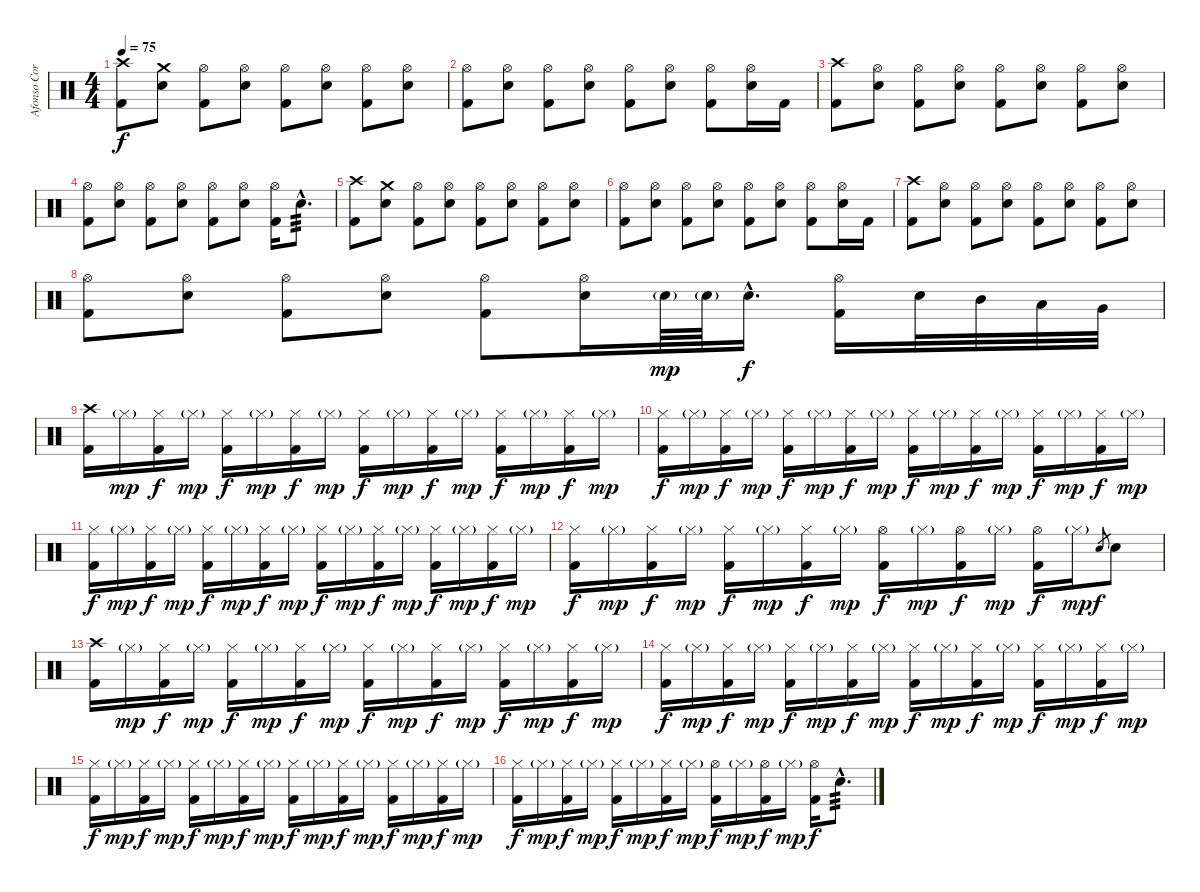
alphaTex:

\track ("Afonso Corte-Real" "Afonso Cor") {instrument percussion}
\staff {score}
\articulation defaults
\ts (4 4)
\tempo 75
\clef neutral
\ks c
("Crash high (hit)" "Kick (hit) 2").8{dy f} ("Crash medium (hit)" "Electric Snare (hit)").8 ("Hi-Hat (open)" "Kick (hit) 2").8 ("Hi-Hat (open)" "Electric Snare (hit)").8 ("Hi-Hat (open)" "Kick (hit) 2").8 ("Hi-Hat (open)" "Electric Snare (hit)").8 ("Hi-Hat (open)" "Kick (hit) 2").8 ("Hi-Hat (open)" "Electric Snare (hit)").8 |
("Hi-Hat (open)" "Kick (hit) 2").8 ("Hi-Hat (open)" "Electric Snare (hit)").8 ("Hi-Hat (open)" "Kick (hit) 2").8 ("Hi-Hat (open)" "Electric Snare (hit)").8 ("Hi-Hat (open)" "Kick (hit) 2").8 ("Hi-Hat (open)" "Electric Snare (hit)").8 ("Hi-Hat (open)" "Kick (hit) 2").8 ("Hi-Hat (open)" "Electric Snare (hit)").16 "Kick (hit) 2".16 |
("Crash high (hit)" "Kick (hit) 2").8 ("Hi-Hat (open)" "Electric Snare (hit)").8 ("Hi-Hat (open)" "Kick (hit) 2").8 ("Hi-Hat (open)" "Electric Snare (hit)").8 ("Hi-Hat (open)" "Kick (hit) 2").8 ("Hi-Hat (open)" "Electric Snare (hit)").8 ("Hi-Hat (open)" "Kick (hit) 2").8 ("Hi-Hat (open)" "Electric Snare (hit)").8 |
("Hi-Hat (open)" "Kick (hit) 2").8 ("Hi-Hat (open)" "Electric Snare (hit)").8 ("Hi-Hat (open)" "Kick (hit) 2").8 ("Hi-Hat (open)" "Electric Snare (hit)").8 ("Hi-Hat (open)" "Kick (hit) 2").8 ("Hi-Hat (open)" "Electric Snare (hit)").8 ("Hi-Hat (open)" "Kick (hit) 2").16 "Electric Snare (hit)"{hac}.8{d tp 3} |
("Crash high (hit)" "Kick (hit) 2").8 ("Crash medium (hit)" "Electric Snare (hit)").8 ("Hi-Hat (open)" "Kick (hit) 2").8 ("Hi-Hat (open)" "Electric Snare (hit)").8 ("Hi-Hat (open)" "Kick (hit) 2").8 ("Hi-Hat (open)" "Electric Snare (hit)").8 ("Hi-Hat (open)" "Kick (hit) 2").8 ("Hi-Hat (open)" "Electric Snare (hit)").8 |
("Hi-Hat (open)" "Kick (hit) 2").8 ("Hi-Hat (open)" "Electric Snare (hit)").8 ("Hi-Hat (open)" "Kick (hit) 2").8 ("Hi-Hat (open)" "Electric Snare (hit)").8 ("Hi-Hat (open)" "Kick (hit) 2").8 ("Hi-Hat (open)" "Electric Snare (hit)").8 ("Hi-Hat (open)" "Kick (hit) 2").8 ("Hi-Hat (open)" "Electric Snare (hit)").16 "Kick (hit) 2".16 |
("Crash high (hit)" "Kick (hit) 2").8 ("Hi-Hat (open)" "Electric Snare (hit)").8 ("Hi-Hat (open)" "Kick (hit) 2").8 ("Hi-Hat (open)" "Electric Snare (hit)").8 ("Hi-Hat (open)" "Kick (hit) 2").8 ("Hi-Hat (open)" "Electric Snare (hit)").8 ("Hi-Hat (open)" "Kick (hit) 2").8 ("Hi-Hat (open)" "Electric Snare (hit)").8 |
("Hi-Hat (open)" "Kick (hit) 2").8 ("Hi-Hat (open)" "Electric Snare (hit)").8 ("Hi-Hat (open)" "Kick (hit) 2").8 ("Hi-Hat (open)" "Electric Snare (hit)").8 ("Hi-Hat (open)" "Kick (hit) 2").8 ("Hi-Hat (open)" "Electric Snare (hit)").16 "Electric Snare (hit)"{g}.64{dy mp} "Electric Snare (hit)"{g}.64 "Electric Snare (hit)"{hac}.16{d dy f} ("Hi-Hat (open)" "Kick (hit) 2").16 "Electric Snare (hit)".32 "Mid Tom (hit)".32 "Low Tom (hit)".32 "Very Low Tom (hit)".32 |
("Crash high (hit)" "Kick (hit) 2").16 "Hi-Hat (closed)"{g}.16{dy mp} ("Hi-Hat (closed)" "Kick (hit) 2").16{dy f} "Hi-Hat (closed)"{g}.16{dy mp} ("Hi-Hat (closed)" "Kick (hit) 2").16{dy f} "Hi-Hat (closed)"{g}.16{dy mp} ("Hi-Hat (closed)" "Kick (hit) 2").16{dy f} "Hi-Hat (closed)"{g}.16{dy mp} ("Hi-Hat (closed)" "Kick (hit) 2").16{dy f} "Hi-Hat (closed)"{g}.16{dy mp} ("Hi-Hat (closed)" "Kick (hit) 2").16{dy f} "Hi-Hat (closed)"{g}.16{dy mp} ("Hi-Hat (closed)" "Kick (hit) 2").16{dy f} "Hi-Hat (closed)"{g}.16{dy mp} ("Hi-Hat (closed)" "Kick (hit) 2").16{dy f} "Hi-Hat (closed)"{g}.16{dy mp} |
("Hi-Hat (closed)" "Kick (hit) 2").16{dy f} "Hi-Hat (closed)"{g}.16{dy mp} ("Hi-Hat (closed)" "Kick (hit) 2").16{dy f} "Hi-Hat (closed)"{g}.16{dy mp} ("Hi-Hat (closed)" "Kick (hit) 2").16{dy f} "Hi-Hat (closed)"{g}.16{dy mp} ("Hi-Hat (closed)" "Kick (hit) 2").16{dy f} "Hi-Hat (closed)"{g}.16{dy mp} ("Hi-Hat (closed)" "Kick (hit) 2").16{dy f} "Hi-Hat (closed)"{g}.16{dy mp} ("Hi-Hat (closed)" "Kick (hit) 2").16{dy f} "Hi-Hat (closed)"{g}.16{dy mp} ("Hi-Hat (closed)" "Kick (hit) 2").16{dy f} "Hi-Hat (closed)"{g}.16{dy mp} ("Hi-Hat (closed)" "Kick (hit) 2").16{dy f} "Hi-Hat (closed)"{g}.16{dy mp} |
("Hi-Hat (closed)" "Kick (hit) 2").16{dy f} "Hi-Hat (closed)"{g}.16{dy mp} ("Hi-Hat (closed)" "Kick (hit) 2").16{dy f} "Hi-Hat (closed)"{g}.16{dy mp} ("Hi-Hat (closed)" "Kick (hit) 2").16{dy f} "Hi-Hat (closed)"{g}.16{dy mp} ("Hi-Hat (closed)" "Kick (hit) 2").16{dy f} "Hi-Hat (closed)"{g}.16{dy mp} ("Hi-Hat (closed)" "Kick (hit) 2").16{dy f} "Hi-Hat (closed)"{g}.16{dy mp} ("Hi-Hat (closed)" "Kick (hit) 2").16{dy f} "Hi-Hat (closed)"{g}.16{dy mp} ("Hi-Hat (closed)" "Kick (hit) 2").16{dy f} "Hi-Hat (closed)"{g}.16{dy mp} ("Hi-Hat (closed)" "Kick (hit) 2").16{dy f} "Hi-Hat (closed)"{g}.16{dy mp} |
("Hi-Hat (closed)" "Kick (hit) 2").16{dy f} "Hi-Hat (closed)"{g}.16{dy mp} ("Hi-Hat (closed)" "Kick (hit) 2").16{dy f} "Hi-Hat (closed)"{g}.16{dy mp} ("Hi-Hat (closed)" "Kick (hit) 2").16{dy f} "Hi-Hat (closed)"{g}.16{dy mp} ("Hi-Hat (closed)" "Kick (hit) 2").16{dy f} "Hi-Hat (closed)"{g}.16{dy mp} ("Hi-Hat (open)" "Kick (hit) 2").16{dy f} "Hi-Hat (closed)"{g}.16{dy mp} ("Hi-Hat (open)" "Kick (hit) 2").16{dy f} "Hi-Hat (closed)"{g}.16{dy mp} ("Hi-Hat (open)" "Kick (hit) 2").16{dy f} "Hi-Hat (closed)"{g}.16{dy mp} "Electric Snare (hit)".8{gr dy f} "Electric Snare (hit)".8 |
("Crash high (hit)" "Kick (hit) 2").16 "Hi-Hat (closed)"{g}.16{dy mp} ("Hi-Hat (closed)" "Kick (hit) 2").16{dy f} "Hi-Hat (closed)"{g}.16{dy mp} ("Hi-Hat (closed)" "Kick (hit) 2").16{dy f} "Hi-Hat (closed)"{g}.16{dy mp} ("Hi-Hat (closed)" "Kick (hit) 2").16{dy f} "Hi-Hat (closed)"{g}.16{dy mp} ("Hi-Hat (closed)" "Kick (hit) 2").16{dy f} "Hi-Hat (closed)"{g}.16{dy mp} ("Hi-Hat (closed)" "Kick (hit) 2").16{dy f} "Hi-Hat (closed)"{g}.16{dy mp} ("Hi-Hat (closed)" "Kick (hit) 2").16{dy f} "Hi-Hat (closed)"{g}.16{dy mp} ("Hi-Hat (closed)" "Kick (hit) 2").16{dy f} "Hi-Hat (closed)"{g}.16{dy mp} |
("Hi-Hat (closed)" "Kick (hit) 2").16{dy f} "Hi-Hat (closed)"{g}.16{dy mp} ("Hi-Hat (closed)" "Kick (hit) 2").16{dy f} "Hi-Hat (closed)"{g}.16{dy mp} ("Hi-Hat (closed)" "Kick (hit) 2").16{dy f} "Hi-Hat (closed)"{g}.16{dy mp} ("Hi-Hat (closed)" "Kick (hit) 2").16{dy f} "Hi-Hat (closed)"{g}.16{dy mp} ("Hi-Hat (closed)" "Kick (hit) 2").16{dy f} "Hi-Hat (closed)"{g}.16{dy mp} ("Hi-Hat (closed)" "Kick (hit) 2").16{dy f} "Hi-Hat (closed)"{g}.16{dy mp} ("Hi-Hat (closed)" "Kick (hit) 2").16{dy f} "Hi-Hat (closed)"{g}.16{dy mp} ("Hi-Hat (closed)" "Kick (hit) 2").16{dy f} "Hi-Hat (closed)"{g}.16{dy mp} |
("Hi-Hat (closed)" "Kick (hit) 2").16{dy f} "Hi-Hat (closed)"{g}.16{dy mp} ("Hi-Hat (closed)" "Kick (hit) 2").16{dy f} "Hi-Hat (closed)"{g}.16{dy mp} ("Hi-Hat (closed)" "Kick (hit) 2").16{dy f} "Hi-Hat (closed)"{g}.16{dy mp} ("Hi-Hat (closed)" "Kick (hit) 2").16{dy f} "Hi-Hat (closed)"{g}.16{dy mp} ("Hi-Hat (closed)" "Kick (hit) 2").16{dy f} "Hi-Hat (closed)"{g}.16{dy mp} ("Hi-Hat (closed)" "Kick (hit) 2").16{dy f} "Hi-Hat (closed)"{g}.16{dy mp} ("Hi-Hat (closed)" "Kick (hit) 2").16{dy f} "Hi-Hat (closed)"{g}.16{dy mp} ("Hi-Hat (closed)" "Kick (hit) 2").16{dy f} "Hi-Hat (closed)"{g}.16{dy mp} |
("Hi-Hat (closed)" "Kick (hit) 2").16{dy f} "Hi-Hat (closed)"{g}.16{dy mp} ("Hi-Hat (closed)" "Kick (hit) 2").16{dy f} "Hi-Hat (closed)"{g}.16{dy mp} ("Hi-Hat (closed)" "Kick (hit) 2").16{dy f} "Hi-Hat (closed)"{g}.16{dy mp} ("Hi-Hat (closed)" "Kick (hit) 2").16{dy f} "Hi-Hat (closed)"{g}.16{dy mp} ("Hi-Hat (open)" "Kick (hit) 2").16{dy f} "Hi-Hat (closed)"{g}.16{dy mp} ("Hi-Hat (open)" "Kick (hit) 2").16{dy f} "Hi-Hat (closed)"{g}.16{dy mp} ("Hi-Hat (open)" "Kick (hit) 2").16{dy f} "Electric Snare (hit)"{hac}.8{d tp 3}
